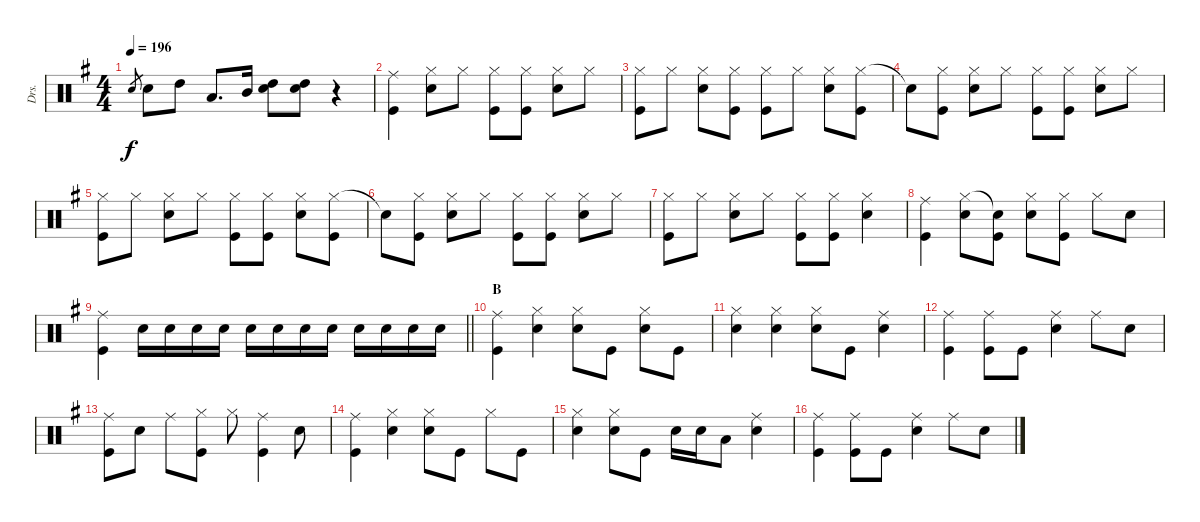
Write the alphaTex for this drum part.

\track ("Drs." "Drs.") {instrument percussion}
\staff {score}
\articulation defaults
\ts (4 4)
\tempo 196
\clef neutral
\ks g "Snare (hit) 2".8{gr dy f} "Snare (hit) 2".8 "High Tom (hit)".8 "Low Tom (hit)".8{d} "Mid Tom (hit)".16
("High Tom (hit)" "Snare (hit) 2").8 ("High Tom (hit)" "Snare (hit) 2").8 r.4 |
("Ride (middle)" "Kick (hit)").4 ("Hi-Hat (closed)" "Snare (hit) 2").8 "Hi-Hat (closed)".8 ("Hi-Hat (closed)" "Kick (hit)").8 ("Hi-Hat (closed)" "Kick (hit)").8 ("Hi-Hat (closed)" "Snare (hit) 2").8 "Hi-Hat (closed)".8 |
("Hi-Hat (closed)" "Kick (hit)").8 "Hi-Hat (closed)".8 ("Hi-Hat (closed)" "Snare (hit) 2").8 ("Hi-Hat (closed)" "Kick (hit)").8 ("Hi-Hat (closed)" "Kick (hit)").8 "Hi-Hat (closed)".8 ("Hi-Hat (closed)" "Snare (hit) 2").8 ("Hi-Hat (closed)" "Kick (hit)").8 |
"Snare (hit)"{t}.8 ("Hi-Hat (closed)" "Kick (hit)").8 ("Hi-Hat (closed)" "Snare (hit) 2").8 "Hi-Hat (closed)".8 ("Hi-Hat (closed)" "Kick (hit)").8 ("Hi-Hat (closed)" "Kick (hit)").8 ("Hi-Hat (closed)" "Snare (hit) 2").8 "Hi-Hat (closed)".8 |
("Hi-Hat (closed)" "Kick (hit)").8 "Hi-Hat (closed)".8 ("Hi-Hat (closed)" "Snare (hit) 2").8 "Hi-Hat (closed)".8 ("Hi-Hat (closed)" "Kick (hit)").8 ("Hi-Hat (closed)" "Kick (hit)").8 ("Hi-Hat (closed)" "Snare (hit) 2").8 ("Hi-Hat (closed)" "Kick (hit)").8 |
"Snare (hit)"{t}.8 ("Hi-Hat (closed)" "Kick (hit)").8 ("Hi-Hat (closed)" "Snare (hit) 2").8 "Hi-Hat (closed)".8 ("Hi-Hat (closed)" "Kick (hit)").8 ("Hi-Hat (closed)" "Kick (hit)").8 ("Hi-Hat (closed)" "Snare (hit) 2").8 "Hi-Hat (closed)".8 |
("Hi-Hat (closed)" "Kick (hit)").8 "Hi-Hat (closed)".8 ("Hi-Hat (closed)" "Snare (hit) 2").8 "Hi-Hat (closed)".8 ("Hi-Hat (closed)" "Kick (hit)").8 ("Hi-Hat (closed)" "Kick (hit)").8 ("Hi-Hat (closed)" "Snare (hit) 2").4 |
("Ride (middle)" "Kick (hit)").4 ("Hi-Hat (closed)" "Snare (hit) 2").8 ("Snare (hit)"{t} "Kick (hit)").8 ("Hi-Hat (closed)" "Snare (hit) 2").8 ("Hi-Hat (closed)" "Kick (hit)").8 "Hi-Hat (closed)".8 "Snare (hit) 2".8 |
\barLineRight lightlight
("Ride (middle)" "Kick (hit)").4 "Snare (hit) 2".16 "Snare (hit) 2".16 "Snare (hit) 2".16 "Snare (hit) 2".16 "Snare (hit) 2".16 "Snare (hit) 2".16 "Snare (hit) 2".16 "Snare (hit) 2".16 "Snare (hit) 2".16 "Snare (hit) 2".16 "Snare (hit) 2".16 "Snare (hit) 2".16 |
\section ("" "B")
("Ride (middle)" "Kick (hit)").4 ("Hi-Hat (closed)" "Snare (hit) 2").4 ("Hi-Hat (closed)" "Snare (hit) 2").8 "Kick (hit)".8 ("Hi-Hat (closed)" "Snare (hit) 2").8 "Kick (hit)".8 |
("Hi-Hat (closed)" "Snare (hit) 2").4 ("Hi-Hat (closed)" "Snare (hit) 2").4 ("Hi-Hat (closed)" "Snare (hit) 2").8 "Kick (hit)".8 ("Ride (middle)" "Snare (hit) 2").4 |
("Ride (middle)" "Kick (hit)").4 ("Ride (middle)" "Kick (hit)").8 "Kick (hit)".8 ("Ride (middle)" "Snare (hit) 2").4 "Ride (middle)".8 "Snare (hit) 2".8 |
("Ride (middle)" "Kick (hit)").8 "Snare (hit) 2".8 "Ride (middle)".8 ("Hi-Hat (closed)" "Kick (hit)").8 "Hi-Hat (closed)".8 ("Ride (middle)" "Kick (hit)").4 "Snare (hit) 2".8 |
("Ride (middle)" "Kick (hit)").4 ("Hi-Hat (closed)" "Snare (hit) 2").4 ("Hi-Hat (closed)" "Snare (hit) 2").8 "Kick (hit)".8 "Hi-Hat (closed)".8 "Kick (hit)".8 |
("Hi-Hat (closed)" "Snare (hit) 2").4 ("Hi-Hat (closed)" "Snare (hit) 2").8 "Kick (hit)".8 "Snare (hit) 2".16 "Snare (hit) 2".16 "Low Tom (hit)".8 ("Ride (middle)" "Snare (hit) 2").4 |
("Ride (middle)" "Kick (hit)").4 ("Ride (middle)" "Kick (hit)").8 "Kick (hit)".8 ("Ride (middle)" "Snare (hit) 2").4 "Ride (middle)".8 "Snare (hit) 2".8
